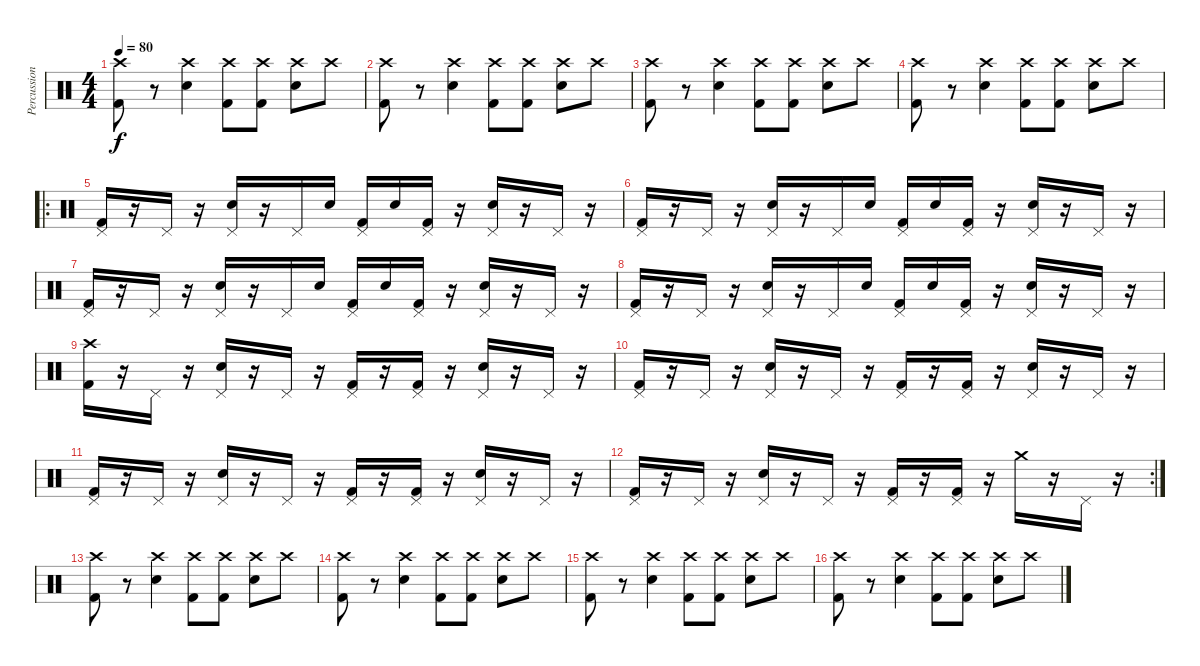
\track ("Percussions" "Percussion") {instrument percussion}
\staff {score}
\articulation defaults
\ts (4 4)
\tempo 80
\clef neutral
\ks c
("Crash high (hit)" "Kick (hit) 2").8{dy f} r.8 ("Crash high (hit)" "Electric Snare (hit)").4 ("Crash high (hit)" "Kick (hit) 2").8 ("Crash high (hit)" "Kick (hit) 2").8 ("Crash high (hit)" "Electric Snare (hit)").8 "Crash high (hit)".8 |
("Crash high (hit)" "Kick (hit) 2").8 r.8 ("Crash high (hit)" "Electric Snare (hit)").4 ("Crash high (hit)" "Kick (hit) 2").8 ("Crash high (hit)" "Kick (hit) 2").8 ("Crash high (hit)" "Electric Snare (hit)").8 "Crash high (hit)".8 |
("Crash high (hit)" "Kick (hit) 2").8 r.8 ("Crash high (hit)" "Electric Snare (hit)").4 ("Crash high (hit)" "Kick (hit) 2").8 ("Crash high (hit)" "Kick (hit) 2").8 ("Crash high (hit)" "Electric Snare (hit)").8 "Crash high (hit)".8 |
("Crash high (hit)" "Kick (hit) 2").8 r.8 ("Crash high (hit)" "Electric Snare (hit)").4 ("Crash high (hit)" "Kick (hit) 2").8 ("Crash high (hit)" "Kick (hit) 2").8 ("Crash high (hit)" "Electric Snare (hit)").8 "Crash high (hit)".8 |
\ro
("Pedal Hi-Hat (hit)" "Kick (hit) 2").16 r.16 "Pedal Hi-Hat (hit)".16 r.16 ("Pedal Hi-Hat (hit)" "Electric Snare (hit)").16 r.16 "Pedal Hi-Hat (hit)".16 "Electric Snare (hit)".16 ("Pedal Hi-Hat (hit)" "Kick (hit) 2").16 "Electric Snare (hit)".16 ("Pedal Hi-Hat (hit)" "Kick (hit) 2").16 r.16 ("Pedal Hi-Hat (hit)" "Electric Snare (hit)").16 r.16 "Pedal Hi-Hat (hit)".16 r.16 |
("Pedal Hi-Hat (hit)" "Kick (hit) 2").16 r.16 "Pedal Hi-Hat (hit)".16 r.16 ("Pedal Hi-Hat (hit)" "Electric Snare (hit)").16 r.16 "Pedal Hi-Hat (hit)".16 "Electric Snare (hit)".16 ("Pedal Hi-Hat (hit)" "Kick (hit) 2").16 "Electric Snare (hit)".16 ("Pedal Hi-Hat (hit)" "Kick (hit) 2").16 r.16 ("Pedal Hi-Hat (hit)" "Electric Snare (hit)").16 r.16 "Pedal Hi-Hat (hit)".16 r.16 |
("Pedal Hi-Hat (hit)" "Kick (hit) 2").16 r.16 "Pedal Hi-Hat (hit)".16 r.16 ("Pedal Hi-Hat (hit)" "Electric Snare (hit)").16 r.16 "Pedal Hi-Hat (hit)".16 "Electric Snare (hit)".16 ("Pedal Hi-Hat (hit)" "Kick (hit) 2").16 "Electric Snare (hit)".16 ("Pedal Hi-Hat (hit)" "Kick (hit) 2").16 r.16 ("Pedal Hi-Hat (hit)" "Electric Snare (hit)").16 r.16 "Pedal Hi-Hat (hit)".16 r.16 |
("Pedal Hi-Hat (hit)" "Kick (hit) 2").16 r.16 "Pedal Hi-Hat (hit)".16 r.16 ("Pedal Hi-Hat (hit)" "Electric Snare (hit)").16 r.16 "Pedal Hi-Hat (hit)".16 "Electric Snare (hit)".16 ("Pedal Hi-Hat (hit)" "Kick (hit) 2").16 "Electric Snare (hit)".16 ("Pedal Hi-Hat (hit)" "Kick (hit) 2").16 r.16 ("Pedal Hi-Hat (hit)" "Electric Snare (hit)").16 r.16 "Pedal Hi-Hat (hit)".16 r.16 |
("Crash high (hit)" "Kick (hit) 2").16 r.16 "Pedal Hi-Hat (hit)".16 r.16 ("Pedal Hi-Hat (hit)" "Electric Snare (hit)").16 r.16 "Pedal Hi-Hat (hit)".16 r.16 ("Pedal Hi-Hat (hit)" "Kick (hit) 2").16 r.16 ("Pedal Hi-Hat (hit)" "Kick (hit) 2").16 r.16 ("Pedal Hi-Hat (hit)" "Electric Snare (hit)").16 r.16 "Pedal Hi-Hat (hit)".16 r.16 |
("Pedal Hi-Hat (hit)" "Kick (hit) 2").16 r.16 "Pedal Hi-Hat (hit)".16 r.16 ("Pedal Hi-Hat (hit)" "Electric Snare (hit)").16 r.16 "Pedal Hi-Hat (hit)".16 r.16 ("Pedal Hi-Hat (hit)" "Kick (hit) 2").16 r.16 ("Pedal Hi-Hat (hit)" "Kick (hit) 2").16 r.16 ("Pedal Hi-Hat (hit)" "Electric Snare (hit)").16 r.16 "Pedal Hi-Hat (hit)".16 r.16 |
("Pedal Hi-Hat (hit)" "Kick (hit) 2").16 r.16 "Pedal Hi-Hat (hit)".16 r.16 ("Pedal Hi-Hat (hit)" "Electric Snare (hit)").16 r.16 "Pedal Hi-Hat (hit)".16 r.16 ("Pedal Hi-Hat (hit)" "Kick (hit) 2").16 r.16 ("Pedal Hi-Hat (hit)" "Kick (hit) 2").16 r.16 ("Pedal Hi-Hat (hit)" "Electric Snare (hit)").16 r.16 "Pedal Hi-Hat (hit)".16 r.16 |
\rc 2
("Pedal Hi-Hat (hit)" "Kick (hit) 2").16 r.16 "Pedal Hi-Hat (hit)".16 r.16 ("Pedal Hi-Hat (hit)" "Electric Snare (hit)").16 r.16 "Pedal Hi-Hat (hit)".16 r.16 ("Pedal Hi-Hat (hit)" "Kick (hit) 2").16 r.16 ("Pedal Hi-Hat (hit)" "Kick (hit) 2").16 r.16 "Crash medium (hit)".16 r.16 "Pedal Hi-Hat (hit)".16 r.16 |
("Crash high (hit)" "Kick (hit) 2").8 r.8 ("Crash high (hit)" "Electric Snare (hit)").4 ("Crash high (hit)" "Kick (hit) 2").8 ("Crash high (hit)" "Kick (hit) 2").8 ("Crash high (hit)" "Electric Snare (hit)").8 "Crash high (hit)".8 |
("Crash high (hit)" "Kick (hit) 2").8 r.8 ("Crash high (hit)" "Electric Snare (hit)").4 ("Crash high (hit)" "Kick (hit) 2").8 ("Crash high (hit)" "Kick (hit) 2").8 ("Crash high (hit)" "Electric Snare (hit)").8 "Crash high (hit)".8 |
("Crash high (hit)" "Kick (hit) 2").8 r.8 ("Crash high (hit)" "Electric Snare (hit)").4 ("Crash high (hit)" "Kick (hit) 2").8 ("Crash high (hit)" "Kick (hit) 2").8 ("Crash high (hit)" "Electric Snare (hit)").8 "Crash high (hit)".8 |
("Crash high (hit)" "Kick (hit) 2").8 r.8 ("Crash high (hit)" "Electric Snare (hit)").4 ("Crash high (hit)" "Kick (hit) 2").8 ("Crash high (hit)" "Kick (hit) 2").8 ("Crash high (hit)" "Electric Snare (hit)").8 "Crash high (hit)".8
